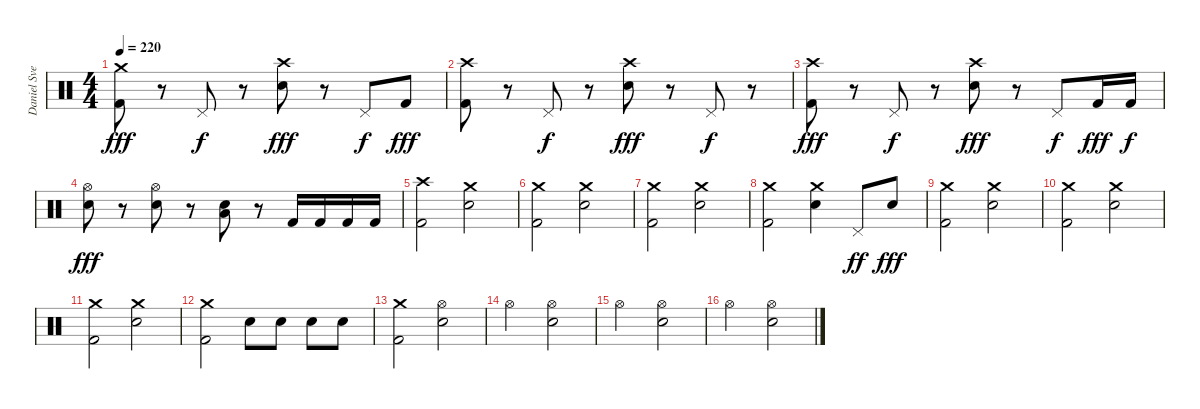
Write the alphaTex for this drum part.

\track ("Daniel Svensson" "Daniel Sve") {instrument percussion}
\staff {score}
\articulation defaults
\ts (4 4)
\tempo 220
\clef neutral
\ks c
("Crash medium (hit)" "Kick (hit) 2").8{dy fff} r.8 "Pedal Hi-Hat (hit)".8{dy f} r.8 ("Crash high (hit)" "Electric Snare (hit)").8{dy fff} r.8 "Pedal Hi-Hat (hit)".8{dy f} "Kick (hit) 2".8{dy fff} |
("Crash high (hit)" "Kick (hit) 2").8 r.8 "Pedal Hi-Hat (hit)".8{dy f} r.8 ("Crash high (hit)" "Electric Snare (hit)").8{dy fff} r.8 "Pedal Hi-Hat (hit)".8{dy f} r.8 |
("Crash high (hit)" "Kick (hit) 2").8{dy fff} r.8 "Pedal Hi-Hat (hit)".8{dy f} r.8 ("Crash high (hit)" "Electric Snare (hit)").8{dy fff} r.8 "Pedal Hi-Hat (hit)".8{dy f} "Kick (hit) 2".16{dy fff} "Kick (hit) 2".16{dy f} |
("Hi-Hat (open)" "Electric Snare (hit)").8{dy fff} r.8 ("Hi-Hat (open)" "Electric Snare (hit)").8 r.8 ("Low Floor Tom (hit)" "Electric Snare (hit)").8 r.8 "Kick (hit) 2".16 "Kick (hit) 2".16 "Kick (hit) 2".16 "Kick (hit) 2".16 |
("Crash high (hit)" "Kick (hit) 2").2 ("Crash medium (hit)" "Electric Snare (hit)").2 |
("Crash medium (hit)" "Kick (hit) 2").2 ("Crash medium (hit)" "Electric Snare (hit)").2 |
("Crash medium (hit)" "Kick (hit) 2").2 ("Crash medium (hit)" "Electric Snare (hit)").2 |
("Crash medium (hit)" "Kick (hit) 2").2 ("Crash medium (hit)" "Electric Snare (hit)").4 "Pedal Hi-Hat (hit)".8{dy ff} "Electric Snare (hit)".8{dy fff} |
("Crash medium (hit)" "Kick (hit) 2").2 ("Crash medium (hit)" "Electric Snare (hit)").2 |
("Crash medium (hit)" "Kick (hit) 2").2 ("Crash medium (hit)" "Electric Snare (hit)").2 |
("Crash medium (hit)" "Kick (hit) 2").2 ("Crash medium (hit)" "Electric Snare (hit)").2 |
("Crash medium (hit)" "Kick (hit) 2").2 "Electric Snare (hit)".8 "Electric Snare (hit)".8 "Electric Snare (hit)".8 "Electric Snare (hit)".8 |
("Crash medium (hit)" "Kick (hit) 2").2 ("Hi-Hat (open)" "Electric Snare (hit)").2 |
"Hi-Hat (open)".2 ("Hi-Hat (open)" "Electric Snare (hit)").2 |
"Hi-Hat (open)".2 ("Hi-Hat (open)" "Electric Snare (hit)").2 |
"Hi-Hat (open)".2 ("Hi-Hat (open)" "Electric Snare (hit)").2
